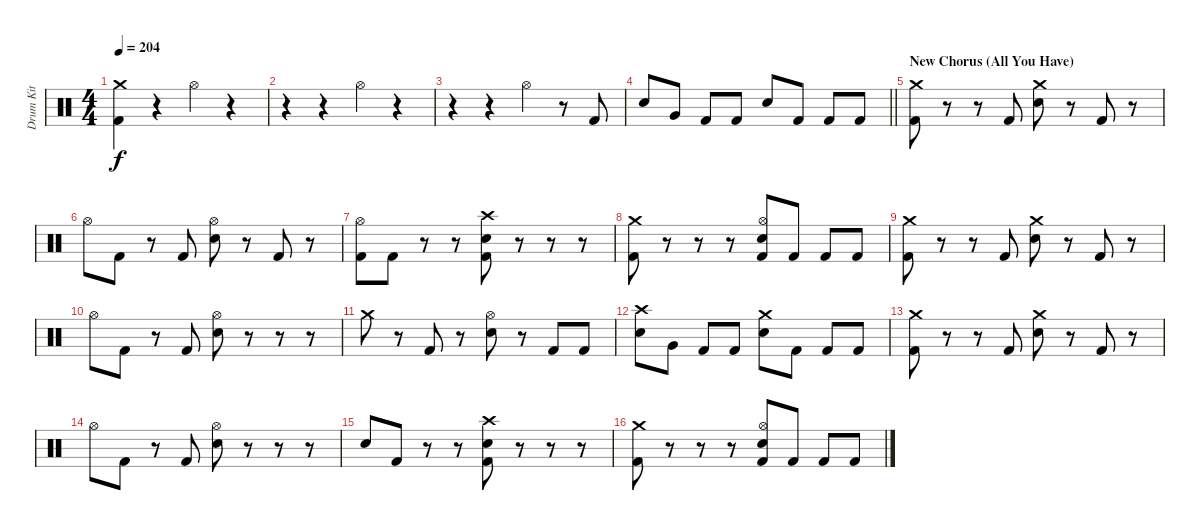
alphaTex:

\track ("Drum Kit" "Drum Kit") {instrument percussion}
\staff {score}
\articulation defaults
\ts (4 4)
\tempo 204
\clef neutral
\ks c
("Crash medium (hit)" "Kick (hit) 2").4{dy f} r.4 "Hi-Hat (open)".4 r.4 |
r.4 r.4 "Hi-Hat (open)".4 r.4 |
r.4 r.4 "Hi-Hat (open)".4 r.8 "Kick (hit) 2".8 |
\barLineRight lightlight "Snare (hit) 2".8 "Very Low Tom (hit)".8 "Kick (hit) 2".8 "Kick (hit) 2".8 "Snare (hit) 2".8 "Kick (hit) 2".8 "Kick (hit) 2".8 "Kick (hit) 2".8
|
\section ("" "New Chorus (All You Have)")
("Crash medium (hit)" "Kick (hit) 2").8 r.8 r.8 "Kick (hit) 2".8 ("Crash medium (hit)" "Snare (hit) 2").8 r.8 "Kick (hit) 2".8 r.8 |
"Hi-Hat (open)".8 "Kick (hit) 2".8 r.8 "Kick (hit) 2".8 ("Hi-Hat (open)" "Snare (hit) 2").8 r.8 "Kick (hit) 2".8 r.8 |
("Hi-Hat (open)" "Kick (hit) 2").8 "Kick (hit) 2".8 r.8 r.8 ("Crash high (hit)" "Snare (hit) 2" "Kick (hit) 2").8 r.8 r.8 r.8 |
("Crash medium (hit)" "Kick (hit) 2").8 r.8 r.8 r.8 ("Hi-Hat (open)" "Snare (hit) 2" "Kick (hit) 2").8 "Kick (hit) 2".8 "Kick (hit) 2".8 "Kick (hit) 2".8 |
("Crash medium (hit)" "Kick (hit) 2").8 r.8 r.8 "Kick (hit) 2".8 ("Crash medium (hit)" "Snare (hit) 2").8 r.8 "Kick (hit) 2".8 r.8 |
"Hi-Hat (open)".8 "Kick (hit) 2".8 r.8 "Kick (hit) 2".8 ("Hi-Hat (open)" "Snare (hit) 2").8 r.8 r.8 r.8 |
"Crash medium (hit)".8 r.8 "Kick (hit) 2".8 r.8 ("Hi-Hat (open)" "Snare (hit) 2").8 r.8 "Kick (hit) 2".8 "Kick (hit) 2".8 |
("Crash high (hit)" "Snare (hit) 2").8 "Very Low Tom (hit)".8 "Kick (hit) 2".8 "Kick (hit) 2".8 ("Crash medium (hit)" "Snare (hit) 2").8 "Kick (hit) 2".8 "Kick (hit) 2".8 "Kick (hit) 2".8 |
("Crash medium (hit)" "Kick (hit) 2").8 r.8 r.8 "Kick (hit) 2".8 ("Crash medium (hit)" "Snare (hit) 2").8 r.8 "Kick (hit) 2".8 r.8 |
"Hi-Hat (open)".8 "Kick (hit) 2".8 r.8 "Kick (hit) 2".8 ("Hi-Hat (open)" "Snare (hit) 2").8 r.8 r.8 r.8 |
"Snare (hit) 2".8 "Kick (hit) 2".8 r.8 r.8 ("Crash high (hit)" "Snare (hit) 2" "Kick (hit) 2").8 r.8 r.8 r.8 |
("Crash medium (hit)" "Kick (hit) 2").8 r.8 r.8 r.8 ("Hi-Hat (open)" "Snare (hit) 2" "Kick (hit) 2").8 "Kick (hit) 2".8 "Kick (hit) 2".8 "Kick (hit) 2".8
